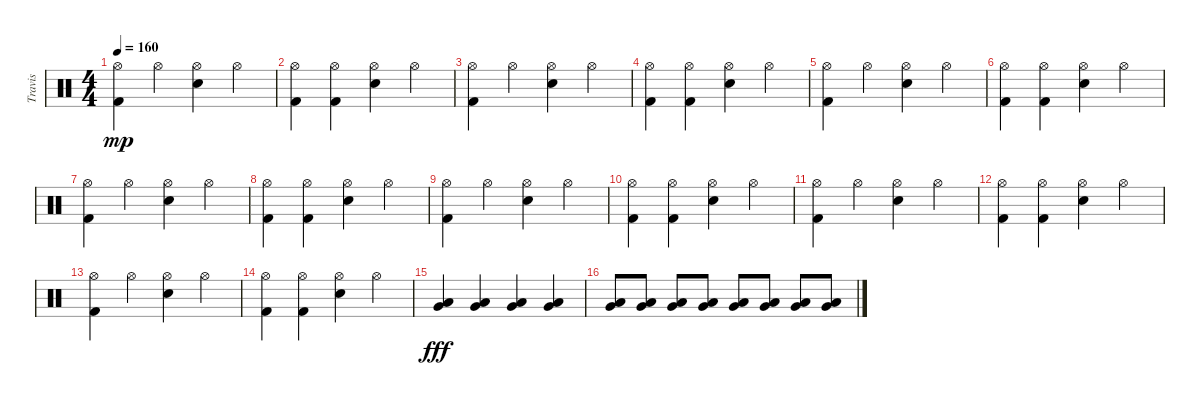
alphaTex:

\track ("Travis" "Travis") {instrument percussion}
\staff {score}
\articulation defaults
\ts (4 4)
\tempo 160
\clef neutral
\ks c
("Hi-Hat (open)" "Kick (hit) 2").4{dy mp} "Hi-Hat (open)".4 ("Hi-Hat (open)" "Electric Snare (hit)").4 "Hi-Hat (open)".4 |
("Hi-Hat (open)" "Kick (hit) 2").4 ("Hi-Hat (open)" "Kick (hit) 2").4 ("Hi-Hat (open)" "Electric Snare (hit)").4 "Hi-Hat (open)".4 |
("Hi-Hat (open)" "Kick (hit) 2").4 "Hi-Hat (open)".4 ("Hi-Hat (open)" "Electric Snare (hit)").4 "Hi-Hat (open)".4 |
("Hi-Hat (open)" "Kick (hit) 2").4 ("Hi-Hat (open)" "Kick (hit) 2").4 ("Hi-Hat (open)" "Electric Snare (hit)").4 "Hi-Hat (open)".4 |
("Hi-Hat (open)" "Kick (hit) 2").4 "Hi-Hat (open)".4 ("Hi-Hat (open)" "Electric Snare (hit)").4 "Hi-Hat (open)".4 |
("Hi-Hat (open)" "Kick (hit) 2").4 ("Hi-Hat (open)" "Kick (hit) 2").4 ("Hi-Hat (open)" "Electric Snare (hit)").4 "Hi-Hat (open)".4 |
("Hi-Hat (open)" "Kick (hit) 2").4 "Hi-Hat (open)".4 ("Hi-Hat (open)" "Electric Snare (hit)").4 "Hi-Hat (open)".4 |
("Hi-Hat (open)" "Kick (hit) 2").4 ("Hi-Hat (open)" "Kick (hit) 2").4 ("Hi-Hat (open)" "Electric Snare (hit)").4 "Hi-Hat (open)".4 |
("Hi-Hat (open)" "Kick (hit) 2").4 "Hi-Hat (open)".4 ("Hi-Hat (open)" "Electric Snare (hit)").4 "Hi-Hat (open)".4 |
("Hi-Hat (open)" "Kick (hit) 2").4 ("Hi-Hat (open)" "Kick (hit) 2").4 ("Hi-Hat (open)" "Electric Snare (hit)").4 "Hi-Hat (open)".4 |
("Hi-Hat (open)" "Kick (hit) 2").4 "Hi-Hat (open)".4 ("Hi-Hat (open)" "Electric Snare (hit)").4 "Hi-Hat (open)".4 |
("Hi-Hat (open)" "Kick (hit) 2").4 ("Hi-Hat (open)" "Kick (hit) 2").4 ("Hi-Hat (open)" "Electric Snare (hit)").4 "Hi-Hat (open)".4 |
("Hi-Hat (open)" "Kick (hit) 2").4 "Hi-Hat (open)".4 ("Hi-Hat (open)" "Electric Snare (hit)").4 "Hi-Hat (open)".4 |
("Hi-Hat (open)" "Kick (hit) 2").4 ("Hi-Hat (open)" "Kick (hit) 2").4 ("Hi-Hat (open)" "Electric Snare (hit)").4 "Hi-Hat (open)".4 |
("Very Low Tom (hit)" "Low Tom (hit)").4{dy fff} ("Very Low Tom (hit)" "Low Tom (hit)").4 ("Very Low Tom (hit)" "Low Tom (hit)").4 ("Very Low Tom (hit)" "Low Tom (hit)").4 |
("Low Tom (hit)" "Very Low Tom (hit)").8 ("Low Tom (hit)" "Very Low Tom (hit)").8 ("Low Tom (hit)" "Very Low Tom (hit)").8 ("Low Tom (hit)" "Very Low Tom (hit)").8 ("Low Tom (hit)" "Very Low Tom (hit)").8 ("Low Tom (hit)" "Very Low Tom (hit)").8 ("Low Tom (hit)" "Very Low Tom (hit)").8 ("Low Tom (hit)" "Very Low Tom (hit)").8
